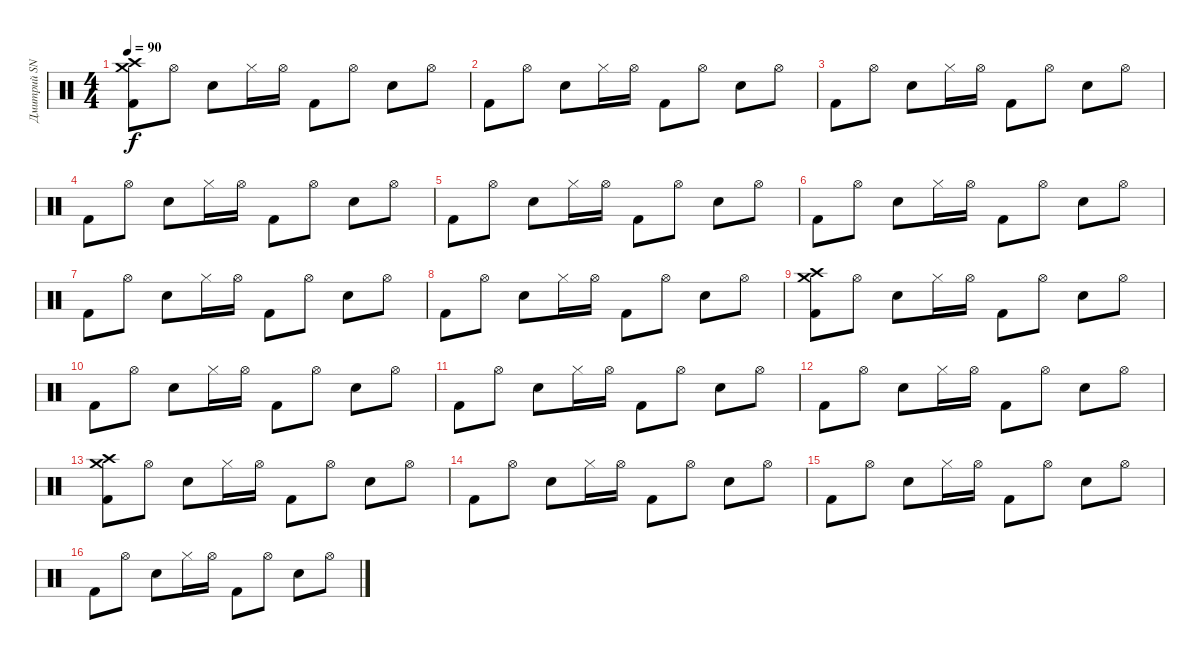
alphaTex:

\track ("Дмитрий SNAKE Хакимов" "Дмитрий SN") {instrument percussion}
\staff {score}
\articulation defaults
\ts (4 4)
\tempo 90
\clef neutral
\ks c
("Crash high (hit)" "Crash medium (hit)" "Kick (hit) 2").8{dy f} "Hi-Hat (open)".8 "Snare (hit) 2".8 "Hi-Hat (closed)".16 "Hi-Hat (open)".16 "Kick (hit) 2".8 "Hi-Hat (open)".8 "Snare (hit) 2".8 "Hi-Hat (open)".8 |
"Kick (hit) 2".8 "Hi-Hat (open)".8 "Snare (hit) 2".8 "Hi-Hat (closed)".16 "Hi-Hat (open)".16 "Kick (hit) 2".8 "Hi-Hat (open)".8 "Snare (hit) 2".8 "Hi-Hat (open)".8 |
"Kick (hit) 2".8 "Hi-Hat (open)".8 "Snare (hit) 2".8 "Hi-Hat (closed)".16 "Hi-Hat (open)".16 "Kick (hit) 2".8 "Hi-Hat (open)".8 "Snare (hit) 2".8 "Hi-Hat (open)".8 |
"Kick (hit) 2".8 "Hi-Hat (open)".8 "Snare (hit) 2".8 "Hi-Hat (closed)".16 "Hi-Hat (open)".16 "Kick (hit) 2".8 "Hi-Hat (open)".8 "Snare (hit) 2".8 "Hi-Hat (open)".8 |
"Kick (hit) 2".8 "Hi-Hat (open)".8 "Snare (hit) 2".8 "Hi-Hat (closed)".16 "Hi-Hat (open)".16 "Kick (hit) 2".8 "Hi-Hat (open)".8 "Snare (hit) 2".8 "Hi-Hat (open)".8 |
"Kick (hit) 2".8 "Hi-Hat (open)".8 "Snare (hit) 2".8 "Hi-Hat (closed)".16 "Hi-Hat (open)".16 "Kick (hit) 2".8 "Hi-Hat (open)".8 "Snare (hit) 2".8 "Hi-Hat (open)".8 |
"Kick (hit) 2".8 "Hi-Hat (open)".8 "Snare (hit) 2".8 "Hi-Hat (closed)".16 "Hi-Hat (open)".16 "Kick (hit) 2".8 "Hi-Hat (open)".8 "Snare (hit) 2".8 "Hi-Hat (open)".8 |
"Kick (hit) 2".8 "Hi-Hat (open)".8 "Snare (hit) 2".8 "Hi-Hat (closed)".16 "Hi-Hat (open)".16 "Kick (hit) 2".8 "Hi-Hat (open)".8 "Snare (hit) 2".8 "Hi-Hat (open)".8 |
("Crash high (hit)" "Crash medium (hit)" "Kick (hit) 2").8 "Hi-Hat (open)".8 "Snare (hit) 2".8 "Hi-Hat (closed)".16 "Hi-Hat (open)".16 "Kick (hit) 2".8 "Hi-Hat (open)".8 "Snare (hit) 2".8 "Hi-Hat (open)".8 |
"Kick (hit) 2".8 "Hi-Hat (open)".8 "Snare (hit) 2".8 "Hi-Hat (closed)".16 "Hi-Hat (open)".16 "Kick (hit) 2".8 "Hi-Hat (open)".8 "Snare (hit) 2".8 "Hi-Hat (open)".8 |
"Kick (hit) 2".8 "Hi-Hat (open)".8 "Snare (hit) 2".8 "Hi-Hat (closed)".16 "Hi-Hat (open)".16 "Kick (hit) 2".8 "Hi-Hat (open)".8 "Snare (hit) 2".8 "Hi-Hat (open)".8 |
"Kick (hit) 2".8 "Hi-Hat (open)".8 "Snare (hit) 2".8 "Hi-Hat (closed)".16 "Hi-Hat (open)".16 "Kick (hit) 2".8 "Hi-Hat (open)".8 "Snare (hit) 2".8 "Hi-Hat (open)".8 |
("Crash high (hit)" "Crash medium (hit)" "Kick (hit) 2").8 "Hi-Hat (open)".8 "Snare (hit) 2".8 "Hi-Hat (closed)".16 "Hi-Hat (open)".16 "Kick (hit) 2".8 "Hi-Hat (open)".8 "Snare (hit) 2".8 "Hi-Hat (open)".8 |
"Kick (hit) 2".8 "Hi-Hat (open)".8 "Snare (hit) 2".8 "Hi-Hat (closed)".16 "Hi-Hat (open)".16 "Kick (hit) 2".8 "Hi-Hat (open)".8 "Snare (hit) 2".8 "Hi-Hat (open)".8 |
"Kick (hit) 2".8 "Hi-Hat (open)".8 "Snare (hit) 2".8 "Hi-Hat (closed)".16 "Hi-Hat (open)".16 "Kick (hit) 2".8 "Hi-Hat (open)".8 "Snare (hit) 2".8 "Hi-Hat (open)".8 |
"Kick (hit) 2".8 "Hi-Hat (open)".8 "Snare (hit) 2".8 "Hi-Hat (closed)".16 "Hi-Hat (open)".16 "Kick (hit) 2".8 "Hi-Hat (open)".8 "Snare (hit) 2".8 "Hi-Hat (open)".8
